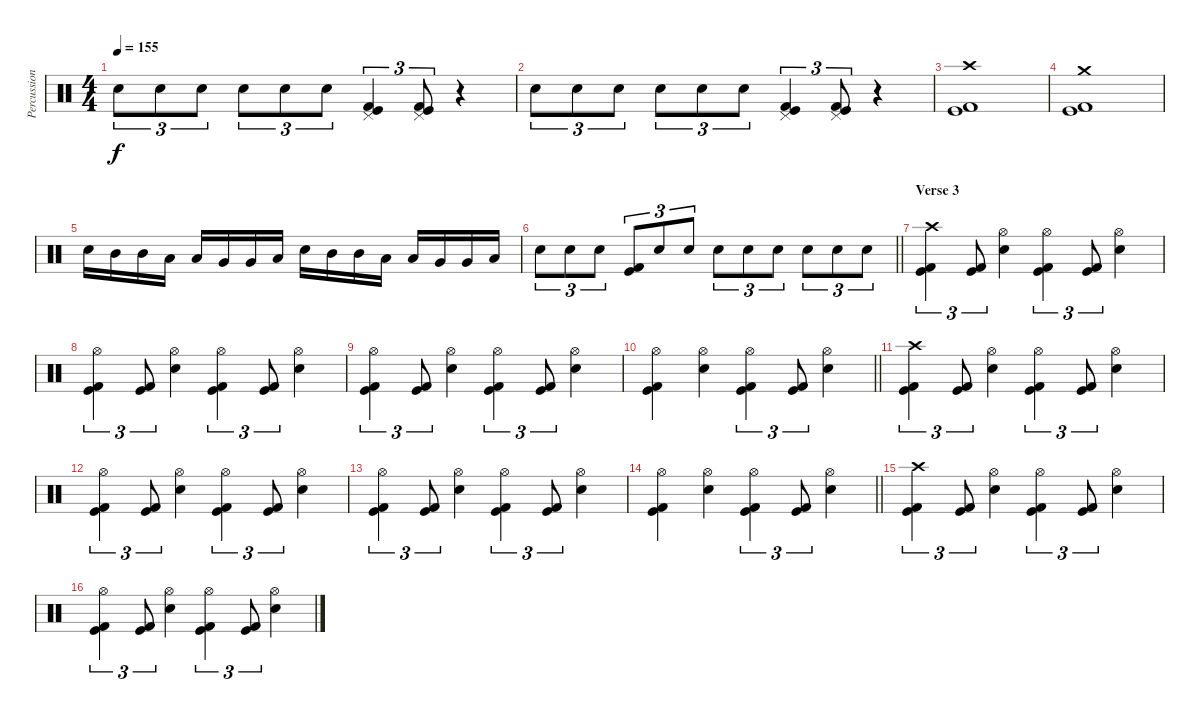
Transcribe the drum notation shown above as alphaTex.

\track ("Percussion" "Percussion") {instrument percussion}
\staff {score}
\articulation defaults
\ts (4 4)
\section ("" "")
\tempo 155
\clef neutral
\ks c "Electric Snare (hit)".8{tu (3 2) dy f} "Electric Snare (hit)".8{tu (3 2)} "Electric Snare (hit)".8{tu (3 2)} "Electric Snare (hit)".8{tu (3 2)} "Electric Snare (hit)".8{tu (3 2)} "Electric Snare (hit)".8{tu (3 2)}
("Pedal Hi-Hat (hit)" "Kick (hit)" "Kick (hit) 2").4{tu (3 2)} ("Pedal Hi-Hat (hit)" "Kick (hit)" "Kick (hit) 2").8{tu (3 2)} r.4 |
"Electric Snare (hit)".8{tu (3 2)} "Electric Snare (hit)".8{tu (3 2)} "Electric Snare (hit)".8{tu (3 2)} "Electric Snare (hit)".8{tu (3 2)} "Electric Snare (hit)".8{tu (3 2)} "Electric Snare (hit)".8{tu (3 2)} ("Pedal Hi-Hat (hit)" "Kick (hit)" "Kick (hit) 2").4{tu (3 2)} ("Pedal Hi-Hat (hit)" "Kick (hit)" "Kick (hit) 2").8{tu (3 2)} r.4 |
("Crash high (hit)" "Kick (hit)" "Kick (hit) 2").1 |
("Crash medium (hit)" "Kick (hit)" "Kick (hit) 2").1 |
"Electric Snare (hit)".16 "Mid Tom (hit)".16 "Mid Tom (hit)".16 "Low Tom (hit)".16 "Low Tom (hit)".16 "Very Low Tom (hit)".16 "Very Low Tom (hit)".16 "Low Floor Tom (hit)".16 "Electric Snare (hit)".16 "Mid Tom (hit)".16 "Mid Tom (hit)".16 "Low Tom (hit)".16 "Low Tom (hit)".16 "Very Low Tom (hit)".16 "Very Low Tom (hit)".16 "Low Floor Tom (hit)".16 |
\barLineRight lightlight "Electric Snare (hit)".8{tu (3 2)} "Electric Snare (hit)".8{tu (3 2)} "Electric Snare (hit)".8{tu (3 2)}
("Kick (hit)" "Kick (hit) 2").8{tu (3 2)} "Electric Snare (hit)".8{tu (3 2)} "Electric Snare (hit)".8{tu (3 2)} "Electric Snare (hit)".8{tu (3 2)} "Electric Snare (hit)".8{tu (3 2)} "Electric Snare (hit)".8{tu (3 2)} "Electric Snare (hit)".8{tu (3 2)} "Electric Snare (hit)".8{tu (3 2)} "Electric Snare (hit)".8{tu (3 2)} |
\section ("" "Verse 3")
("Crash high (hit)" "Kick (hit)" "Kick (hit) 2").4{tu (3 2)} ("Kick (hit)" "Kick (hit) 2").8{tu (3 2)} ("Hi-Hat (open)" "Electric Snare (hit)").4 ("Hi-Hat (open)" "Kick (hit)" "Kick (hit) 2").4{tu (3 2)} ("Kick (hit)" "Kick (hit) 2").8{tu (3 2)} ("Hi-Hat (open)" "Electric Snare (hit)").4 |
("Hi-Hat (open)" "Kick (hit)" "Kick (hit) 2").4{tu (3 2)} ("Kick (hit)" "Kick (hit) 2").8{tu (3 2)} ("Hi-Hat (open)" "Electric Snare (hit)").4 ("Hi-Hat (open)" "Kick (hit)" "Kick (hit) 2").4{tu (3 2)} ("Kick (hit)" "Kick (hit) 2").8{tu (3 2)} ("Hi-Hat (open)" "Electric Snare (hit)").4 |
("Hi-Hat (open)" "Kick (hit)" "Kick (hit) 2").4{tu (3 2)} ("Kick (hit)" "Kick (hit) 2").8{tu (3 2)} ("Hi-Hat (open)" "Electric Snare (hit)").4 ("Hi-Hat (open)" "Kick (hit)" "Kick (hit) 2").4{tu (3 2)} ("Kick (hit)" "Kick (hit) 2").8{tu (3 2)} ("Hi-Hat (open)" "Electric Snare (hit)").4 |
\barLineRight lightlight
("Hi-Hat (open)" "Kick (hit)" "Kick (hit) 2").4 ("Hi-Hat (open)" "Electric Snare (hit)").4 ("Hi-Hat (open)" "Kick (hit)" "Kick (hit) 2").4{tu (3 2)} ("Kick (hit)" "Kick (hit) 2").8{tu (3 2)} ("Hi-Hat (open)" "Electric Snare (hit)").4 |
("Crash high (hit)" "Kick (hit)" "Kick (hit) 2").4{tu (3 2)} ("Kick (hit)" "Kick (hit) 2").8{tu (3 2)} ("Hi-Hat (open)" "Electric Snare (hit)").4 ("Hi-Hat (open)" "Kick (hit)" "Kick (hit) 2").4{tu (3 2)} ("Kick (hit)" "Kick (hit) 2").8{tu (3 2)} ("Hi-Hat (open)" "Electric Snare (hit)").4 |
("Hi-Hat (open)" "Kick (hit)" "Kick (hit) 2").4{tu (3 2)} ("Kick (hit)" "Kick (hit) 2").8{tu (3 2)} ("Hi-Hat (open)" "Electric Snare (hit)").4 ("Hi-Hat (open)" "Kick (hit)" "Kick (hit) 2").4{tu (3 2)} ("Kick (hit)" "Kick (hit) 2").8{tu (3 2)} ("Hi-Hat (open)" "Electric Snare (hit)").4 |
("Hi-Hat (open)" "Kick (hit)" "Kick (hit) 2").4{tu (3 2)} ("Kick (hit)" "Kick (hit) 2").8{tu (3 2)} ("Hi-Hat (open)" "Electric Snare (hit)").4 ("Hi-Hat (open)" "Kick (hit)" "Kick (hit) 2").4{tu (3 2)} ("Kick (hit)" "Kick (hit) 2").8{tu (3 2)} ("Hi-Hat (open)" "Electric Snare (hit)").4 |
\barLineRight lightlight
("Hi-Hat (open)" "Kick (hit)" "Kick (hit) 2").4 ("Hi-Hat (open)" "Electric Snare (hit)").4 ("Hi-Hat (open)" "Kick (hit)" "Kick (hit) 2").4{tu (3 2)} ("Kick (hit)" "Kick (hit) 2").8{tu (3 2)} ("Hi-Hat (open)" "Electric Snare (hit)").4 |
\section ("" "")
("Crash high (hit)" "Kick (hit)" "Kick (hit) 2").4{tu (3 2)} ("Kick (hit)" "Kick (hit) 2").8{tu (3 2)} ("Hi-Hat (open)" "Electric Snare (hit)").4 ("Hi-Hat (open)" "Kick (hit)" "Kick (hit) 2").4{tu (3 2)} ("Kick (hit)" "Kick (hit) 2").8{tu (3 2)} ("Hi-Hat (open)" "Electric Snare (hit)").4 |
("Hi-Hat (open)" "Kick (hit)" "Kick (hit) 2").4{tu (3 2)} ("Kick (hit)" "Kick (hit) 2").8{tu (3 2)} ("Hi-Hat (open)" "Electric Snare (hit)").4 ("Hi-Hat (open)" "Kick (hit)" "Kick (hit) 2").4{tu (3 2)} ("Kick (hit)" "Kick (hit) 2").8{tu (3 2)} ("Hi-Hat (open)" "Electric Snare (hit)").4
